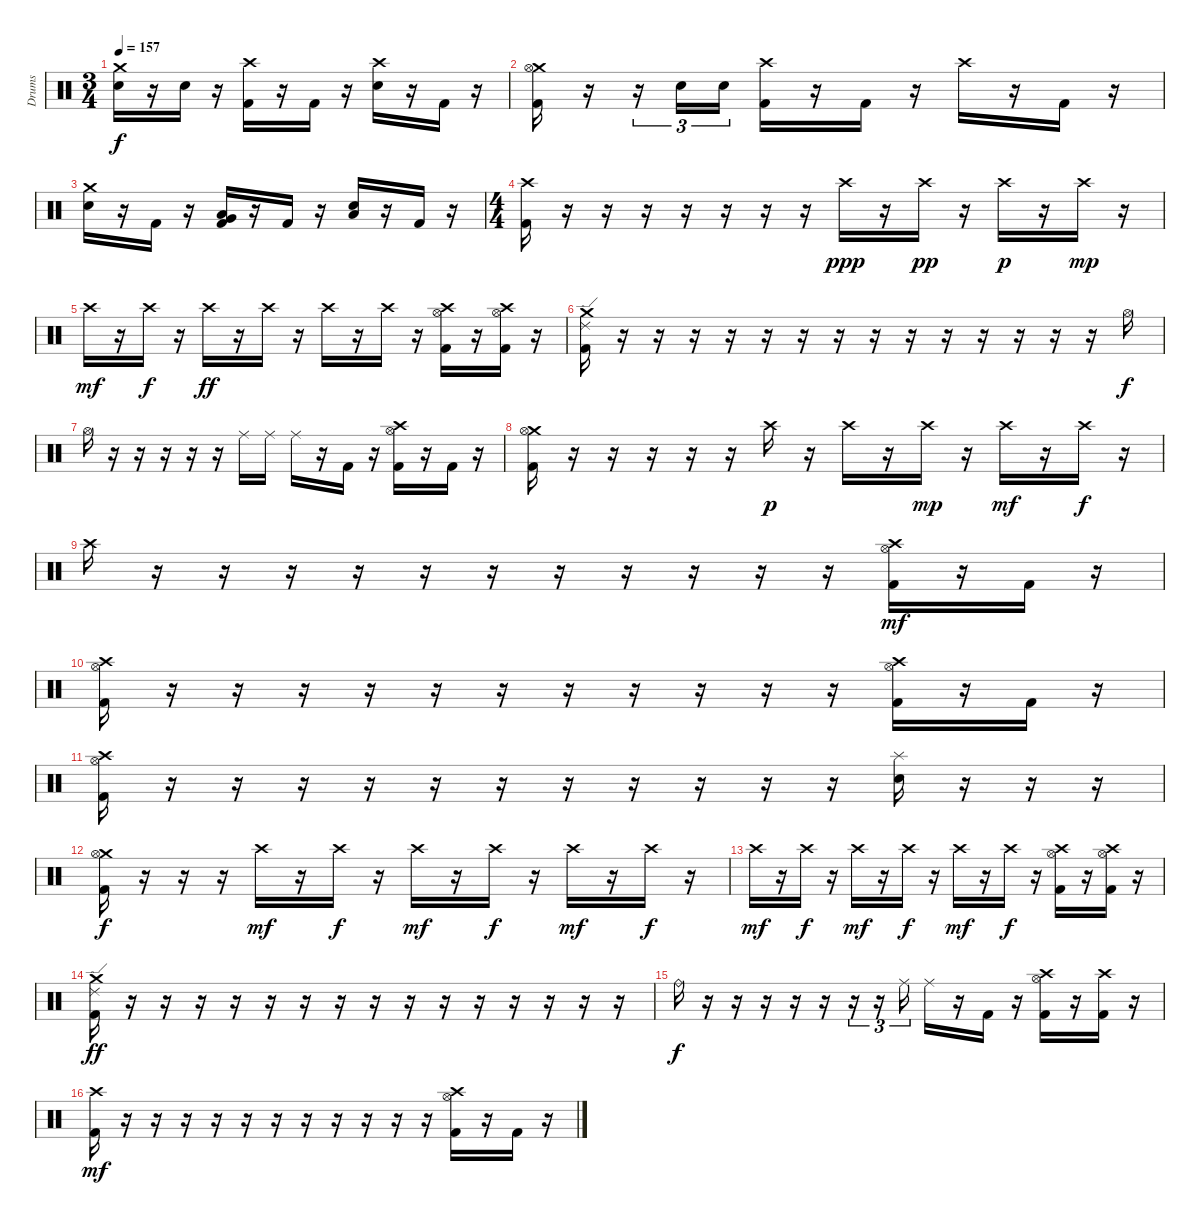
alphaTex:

\track ("Drums" "Drums") {instrument percussion}
\staff {score}
\articulation defaults
\ts (3 4)
\tempo 157
\clef neutral
\ks c
("Crash medium (hit)" "Snare (hit) 2").16{dy f} r.16 "Snare (hit) 2".16 r.16 ("Crash high (hit)" "Kick (hit) 2").16 r.16 "Kick (hit) 2".16 r.16 ("Crash high (hit)" "Snare (hit) 2").16 r.16 "Kick (hit) 2".16 r.16 |
("Crash medium (hit)" "Hi-Hat (open)" "Kick (hit) 2").16 r.16 r.16{tu (3 2)} "Snare (hit) 2".16{tu (3 2)} "Snare (hit) 2".16{tu (3 2)} ("Crash high (hit)" "Kick (hit) 2").16 r.16 "Kick (hit) 2".16 r.16 "Crash high (hit)".16 r.16 "Kick (hit) 2".16 r.16 |
("Crash medium (hit)" "Snare (hit) 2").16 r.16 "Kick (hit) 2".16 r.16 ("Very Low Tom (hit)" "Low Tom (hit)" "Kick (hit) 2").16 r.16 "Kick (hit) 2".16 r.16 ("Low Tom (hit)" "Snare (hit) 2").16 r.16 "Kick (hit) 2".16 r.16 |
\ts (4 4)
("Crash high (hit)" "Kick (hit) 2").16 r.16 r.16 r.16 r.16 r.16 r.16 r.16 "Crash high (hit)".16{dy ppp} r.16 "Crash high (hit)".16{dy pp} r.16 "Crash high (hit)".16{dy p} r.16 "Crash high (hit)".16{dy mp} r.16 |
"Crash high (hit)".16{dy mf} r.16 "Crash high (hit)".16{dy f} r.16 "Crash high (hit)".16{dy ff} r.16 "Crash high (hit)".16 r.16 "Crash high (hit)".16 r.16 "Crash high (hit)".16 r.16 ("Crash high (hit)" "Hi-Hat (open)" "Kick (hit) 2").16 r.16 ("Crash high (hit)" "Hi-Hat (open)" "Kick (hit) 2").16 r.16 |
("Ride (edge) 2" "Crash medium (hit)" "Kick (hit) 2").16 r.16 r.16 r.16 r.16 r.16 r.16 r.16 r.16 r.16 r.16 r.16 r.16 r.16 r.16 "Hi-Hat (open)".16{dy f} |
"Hi-Hat (open)".16 r.16 r.16 r.16 r.16 r.16 "Ride (middle)".16 "Ride (middle)".16 "Ride (middle)".16 r.16 "Kick (hit) 2".16 r.16 ("Crash high (hit)" "Hi-Hat (open)" "Kick (hit) 2").16 r.16 "Kick (hit) 2".16 r.16 |
("Crash medium (hit)" "Hi-Hat (open)" "Kick (hit) 2").16 r.16 r.16 r.16 r.16 r.16 "Crash high (hit)".16{dy p} r.16 "Crash high (hit)".16 r.16 "Crash high (hit)".16{dy mp} r.16 "Crash high (hit)".16{dy mf} r.16 "Crash high (hit)".16{dy f} r.16 |
"Crash high (hit)".16 r.16 r.16 r.16 r.16 r.16 r.16 r.16 r.16 r.16 r.16 r.16 ("Crash high (hit)" "Hi-Hat (open)" "Kick (hit) 2").16{dy mf} r.16 "Kick (hit) 2".16 r.16 |
("Crash high (hit)" "Hi-Hat (open)" "Kick (hit) 2").16 r.16 r.16 r.16 r.16 r.16 r.16 r.16 r.16 r.16 r.16 r.16 ("Crash high (hit)" "Hi-Hat (open)" "Kick (hit) 2").16 r.16 "Kick (hit) 2".16 r.16 |
("Crash high (hit)" "Hi-Hat (open)" "Kick (hit) 2").16 r.16 r.16 r.16 r.16 r.16 r.16 r.16 r.16 r.16 r.16 r.16 ("Splash (hit)" "Snare (hit) 2").16 r.16 r.16 r.16 |
("Crash medium (hit)" "Hi-Hat (open)" "Kick (hit) 2").16{dy f} r.16 r.16 r.16 "Crash high (hit)".16{dy mf} r.16 "Crash high (hit)".16{dy f} r.16 "Crash high (hit)".16{dy mf} r.16 "Crash high (hit)".16{dy f} r.16 "Crash high (hit)".16{dy mf} r.16 "Crash high (hit)".16{dy f} r.16 |
"Crash high (hit)".16{dy mf} r.16 "Crash high (hit)".16{dy f} r.16 "Crash high (hit)".16{dy mf} r.16 "Crash high (hit)".16{dy f} r.16 "Crash high (hit)".16{dy mf} r.16 "Crash high (hit)".16{dy f} r.16 ("Crash high (hit)" "Hi-Hat (open)" "Kick (hit) 2").16 r.16 ("Crash high (hit)" "Hi-Hat (open)" "Kick (hit) 2").16 r.16 |
("Ride (edge) 2" "Crash medium (hit)" "Kick (hit) 2").16{dy ff} r.16 r.16 r.16 r.16 r.16 r.16 r.16 r.16 r.16 r.16 r.16 r.16 r.16 r.16 r.16 |
"Ride (bell)".16{dy f} r.16 r.16 r.16 r.16 r.16 r.16{tu (3 2)} r.16{tu (3 2)} "Ride (middle)".16{tu (3 2)} "Ride (middle)".16 r.16 "Kick (hit) 2".16 r.16 ("Crash high (hit)" "Hi-Hat (open)" "Kick (hit) 2").16 r.16 ("Crash high (hit)" "Kick (hit) 2").16 r.16 |
("Crash high (hit)" "Kick (hit) 2").16{dy mf} r.16 r.16 r.16 r.16 r.16 r.16 r.16 r.16 r.16 r.16 r.16 ("Crash high (hit)" "Hi-Hat (open)" "Kick (hit) 2").16 r.16 "Kick (hit) 2".16 r.16
